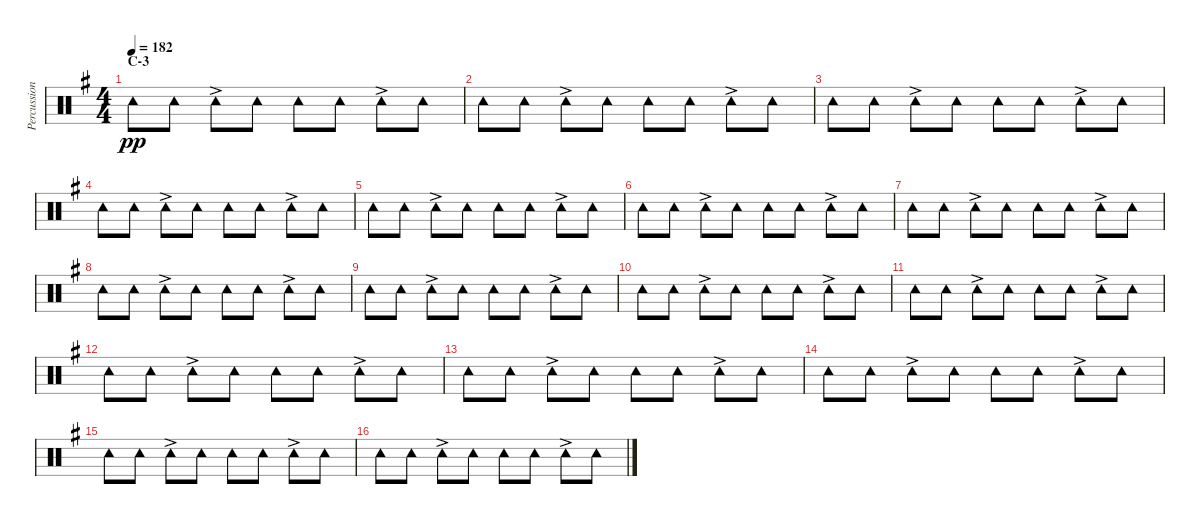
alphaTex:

\track ("Percussion (Tainaka Ritsu)" "Percussion") {instrument percussion}
\staff {score}
\articulation defaults
\ts (4 4)
\section ("" "C-3")
\tempo 182
\clef neutral
\ks g "Tambourine (hit)".8{dy pp} "Tambourine (hit)".8 "Tambourine (hit)"{ac}.8 "Tambourine (hit)".8 "Tambourine (hit)".8 "Tambourine (hit)".8 "Tambourine (hit)"{ac}.8 "Tambourine (hit)".8
|
"Tambourine (hit)".8 "Tambourine (hit)".8 "Tambourine (hit)"{ac}.8 "Tambourine (hit)".8 "Tambourine (hit)".8 "Tambourine (hit)".8 "Tambourine (hit)"{ac}.8 "Tambourine (hit)".8 |
"Tambourine (hit)".8 "Tambourine (hit)".8 "Tambourine (hit)"{ac}.8 "Tambourine (hit)".8 "Tambourine (hit)".8 "Tambourine (hit)".8 "Tambourine (hit)"{ac}.8 "Tambourine (hit)".8 |
"Tambourine (hit)".8 "Tambourine (hit)".8 "Tambourine (hit)"{ac}.8 "Tambourine (hit)".8 "Tambourine (hit)".8 "Tambourine (hit)".8 "Tambourine (hit)"{ac}.8 "Tambourine (hit)".8 |
"Tambourine (hit)".8 "Tambourine (hit)".8 "Tambourine (hit)"{ac}.8 "Tambourine (hit)".8 "Tambourine (hit)".8 "Tambourine (hit)".8 "Tambourine (hit)"{ac}.8 "Tambourine (hit)".8 |
"Tambourine (hit)".8 "Tambourine (hit)".8 "Tambourine (hit)"{ac}.8 "Tambourine (hit)".8 "Tambourine (hit)".8 "Tambourine (hit)".8 "Tambourine (hit)"{ac}.8 "Tambourine (hit)".8 |
"Tambourine (hit)".8 "Tambourine (hit)".8 "Tambourine (hit)"{ac}.8 "Tambourine (hit)".8 "Tambourine (hit)".8 "Tambourine (hit)".8 "Tambourine (hit)"{ac}.8 "Tambourine (hit)".8 |
"Tambourine (hit)".8 "Tambourine (hit)".8 "Tambourine (hit)"{ac}.8 "Tambourine (hit)".8 "Tambourine (hit)".8 "Tambourine (hit)".8 "Tambourine (hit)"{ac}.8 "Tambourine (hit)".8 |
"Tambourine (hit)".8 "Tambourine (hit)".8 "Tambourine (hit)"{ac}.8 "Tambourine (hit)".8 "Tambourine (hit)".8 "Tambourine (hit)".8 "Tambourine (hit)"{ac}.8 "Tambourine (hit)".8 |
"Tambourine (hit)".8 "Tambourine (hit)".8 "Tambourine (hit)"{ac}.8 "Tambourine (hit)".8 "Tambourine (hit)".8 "Tambourine (hit)".8 "Tambourine (hit)"{ac}.8 "Tambourine (hit)".8 |
"Tambourine (hit)".8 "Tambourine (hit)".8 "Tambourine (hit)"{ac}.8 "Tambourine (hit)".8 "Tambourine (hit)".8 "Tambourine (hit)".8 "Tambourine (hit)"{ac}.8 "Tambourine (hit)".8 |
"Tambourine (hit)".8 "Tambourine (hit)".8 "Tambourine (hit)"{ac}.8 "Tambourine (hit)".8 "Tambourine (hit)".8 "Tambourine (hit)".8 "Tambourine (hit)"{ac}.8 "Tambourine (hit)".8 |
"Tambourine (hit)".8 "Tambourine (hit)".8 "Tambourine (hit)"{ac}.8 "Tambourine (hit)".8 "Tambourine (hit)".8 "Tambourine (hit)".8 "Tambourine (hit)"{ac}.8 "Tambourine (hit)".8 |
"Tambourine (hit)".8 "Tambourine (hit)".8 "Tambourine (hit)"{ac}.8 "Tambourine (hit)".8 "Tambourine (hit)".8 "Tambourine (hit)".8 "Tambourine (hit)"{ac}.8 "Tambourine (hit)".8 |
"Tambourine (hit)".8 "Tambourine (hit)".8 "Tambourine (hit)"{ac}.8 "Tambourine (hit)".8 "Tambourine (hit)".8 "Tambourine (hit)".8 "Tambourine (hit)"{ac}.8 "Tambourine (hit)".8 |
"Tambourine (hit)".8 "Tambourine (hit)".8 "Tambourine (hit)"{ac}.8 "Tambourine (hit)".8 "Tambourine (hit)".8 "Tambourine (hit)".8 "Tambourine (hit)"{ac}.8 "Tambourine (hit)".8
